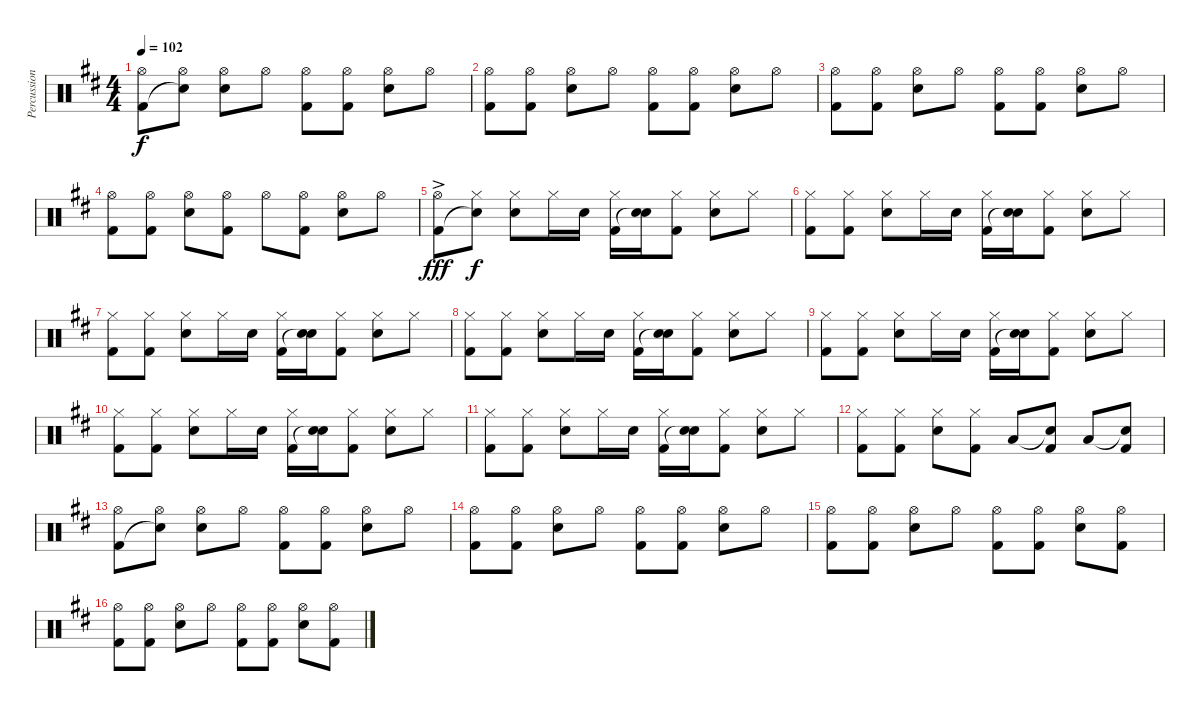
\track ("Percussion" "Percussion") {instrument percussion}
\staff {score}
\articulation defaults
\ts (4 4)
\tempo 102
\clef neutral
\ks d
("Hi-Hat (open)" "Kick (hit) 2").8{dy f} ("Hi-Hat (open)" "Snare (hit)"{t}).8 ("Hi-Hat (open)" "Snare (hit) 2").8 "Hi-Hat (open)".8 ("Hi-Hat (open)" "Kick (hit) 2").8 ("Hi-Hat (open)" "Kick (hit) 2").8 ("Hi-Hat (open)" "Snare (hit) 2").8 "Hi-Hat (open)".8 |
("Hi-Hat (open)" "Kick (hit) 2").8 ("Hi-Hat (open)" "Kick (hit) 2").8 ("Hi-Hat (open)" "Snare (hit) 2").8 "Hi-Hat (open)".8 ("Hi-Hat (open)" "Kick (hit) 2").8 ("Hi-Hat (open)" "Kick (hit) 2").8 ("Hi-Hat (open)" "Snare (hit) 2").8 "Hi-Hat (open)".8 |
("Hi-Hat (open)" "Kick (hit) 2").8 ("Hi-Hat (open)" "Kick (hit) 2").8 ("Hi-Hat (open)" "Snare (hit) 2").8 "Hi-Hat (open)".8 ("Hi-Hat (open)" "Kick (hit) 2").8 ("Hi-Hat (open)" "Kick (hit) 2").8 ("Hi-Hat (open)" "Snare (hit) 2").8 "Hi-Hat (open)".8 |
("Hi-Hat (open)" "Kick (hit) 2").8 ("Hi-Hat (open)" "Kick (hit) 2").8 ("Hi-Hat (open)" "Snare (hit) 2").8 ("Hi-Hat (open)" "Kick (hit) 2").8 "Hi-Hat (open)".8 ("Hi-Hat (open)" "Kick (hit) 2").8 ("Hi-Hat (open)" "Snare (hit) 2").8 "Hi-Hat (open)".8 |
("Hi-Hat (open)"{ac} "Kick (hit) 2"{ac}).8{dy fff} ("Hi-Hat (closed)" "Snare (hit)"{t}).8{dy f} ("Hi-Hat (closed)" "Snare (hit) 2").8 "Hi-Hat (closed)".16 "Snare (hit) 2".16 ("Hi-Hat (closed)" "Kick (hit) 2").16 ("Snare (hit) 2" "Snare (hit)"{t}).16 ("Hi-Hat (closed)" "Kick (hit) 2").8 ("Hi-Hat (closed)" "Snare (hit) 2").8 "Hi-Hat (closed)".8 |
("Hi-Hat (closed)" "Kick (hit) 2").8 ("Hi-Hat (closed)" "Kick (hit) 2").8 ("Hi-Hat (closed)" "Snare (hit) 2").8 "Hi-Hat (closed)".16 "Snare (hit) 2".16 ("Hi-Hat (closed)" "Kick (hit) 2").16 ("Snare (hit) 2" "Snare (hit)"{t}).16 ("Hi-Hat (closed)" "Kick (hit) 2").8 ("Hi-Hat (closed)" "Snare (hit) 2").8 "Hi-Hat (closed)".8 |
("Hi-Hat (closed)" "Kick (hit) 2").8 ("Hi-Hat (closed)" "Kick (hit) 2").8 ("Hi-Hat (closed)" "Snare (hit) 2").8 "Hi-Hat (closed)".16 "Snare (hit) 2".16 ("Hi-Hat (closed)" "Kick (hit) 2").16 ("Snare (hit) 2" "Snare (hit)"{t}).16 ("Hi-Hat (closed)" "Kick (hit) 2").8 ("Hi-Hat (closed)" "Snare (hit) 2").8 "Hi-Hat (closed)".8 |
("Hi-Hat (closed)" "Kick (hit) 2").8 ("Hi-Hat (closed)" "Kick (hit) 2").8 ("Hi-Hat (closed)" "Snare (hit) 2").8 "Hi-Hat (closed)".16 "Snare (hit) 2".16 ("Hi-Hat (closed)" "Kick (hit) 2").16 ("Snare (hit) 2" "Snare (hit)"{t}).16 ("Hi-Hat (closed)" "Kick (hit) 2").8 ("Hi-Hat (closed)" "Snare (hit) 2").8 "Hi-Hat (closed)".8 |
("Hi-Hat (closed)" "Kick (hit) 2").8 ("Hi-Hat (closed)" "Kick (hit) 2").8 ("Hi-Hat (closed)" "Snare (hit) 2").8 "Hi-Hat (closed)".16 "Snare (hit) 2".16 ("Hi-Hat (closed)" "Kick (hit) 2").16 ("Snare (hit) 2" "Snare (hit)"{t}).16 ("Hi-Hat (closed)" "Kick (hit) 2").8 ("Hi-Hat (closed)" "Snare (hit) 2").8 "Hi-Hat (closed)".8 |
("Hi-Hat (closed)" "Kick (hit) 2").8 ("Hi-Hat (closed)" "Kick (hit) 2").8 ("Hi-Hat (closed)" "Snare (hit) 2").8 "Hi-Hat (closed)".16 "Snare (hit) 2".16 ("Hi-Hat (closed)" "Kick (hit) 2").16 ("Snare (hit) 2" "Snare (hit)"{t}).16 ("Hi-Hat (closed)" "Kick (hit) 2").8 ("Hi-Hat (closed)" "Snare (hit) 2").8 "Hi-Hat (closed)".8 |
("Hi-Hat (closed)" "Kick (hit) 2").8 ("Hi-Hat (closed)" "Kick (hit) 2").8 ("Hi-Hat (closed)" "Snare (hit) 2").8 "Hi-Hat (closed)".16 "Snare (hit) 2".16 ("Hi-Hat (closed)" "Kick (hit) 2").16 ("Snare (hit) 2" "Snare (hit)"{t}).16 ("Hi-Hat (closed)" "Kick (hit) 2").8 ("Hi-Hat (closed)" "Snare (hit) 2").8 "Hi-Hat (closed)".8 |
("Hi-Hat (closed)" "Kick (hit) 2").8 ("Hi-Hat (closed)" "Kick (hit) 2").8 ("Hi-Hat (closed)" "Snare (hit) 2").8 ("Hi-Hat (closed)" "Kick (hit) 2").8 "Low Tom (hit)".8 ("Snare (hit)"{t} "Kick (hit) 2").8 "Low Tom (hit)".8 ("Snare (hit)"{t} "Kick (hit) 2").8 |
("Hi-Hat (open)" "Kick (hit) 2").8 ("Hi-Hat (open)" "Snare (hit)"{t}).8 ("Hi-Hat (open)" "Snare (hit) 2").8 "Hi-Hat (open)".8 ("Hi-Hat (open)" "Kick (hit) 2").8 ("Hi-Hat (open)" "Kick (hit) 2").8 ("Hi-Hat (open)" "Snare (hit) 2").8 "Hi-Hat (open)".8 |
("Hi-Hat (open)" "Kick (hit) 2").8 ("Hi-Hat (open)" "Kick (hit) 2").8 ("Hi-Hat (open)" "Snare (hit) 2").8 "Hi-Hat (open)".8 ("Hi-Hat (open)" "Kick (hit) 2").8 ("Hi-Hat (open)" "Kick (hit) 2").8 ("Hi-Hat (open)" "Snare (hit) 2").8 "Hi-Hat (open)".8 |
("Hi-Hat (open)" "Kick (hit) 2").8 ("Hi-Hat (open)" "Kick (hit) 2").8 ("Hi-Hat (open)" "Snare (hit) 2").8 "Hi-Hat (open)".8 ("Hi-Hat (open)" "Kick (hit) 2").8 ("Hi-Hat (open)" "Kick (hit) 2").8 ("Hi-Hat (open)" "Snare (hit) 2").8 ("Hi-Hat (open)" "Kick (hit) 2").8 |
("Hi-Hat (open)" "Kick (hit) 2").8 ("Hi-Hat (open)" "Kick (hit) 2").8 ("Hi-Hat (open)" "Snare (hit) 2").8 "Hi-Hat (open)".8 ("Hi-Hat (open)" "Kick (hit) 2").8 ("Hi-Hat (open)" "Kick (hit) 2").8 ("Hi-Hat (open)" "Snare (hit) 2").8 ("Hi-Hat (open)" "Kick (hit) 2").8
